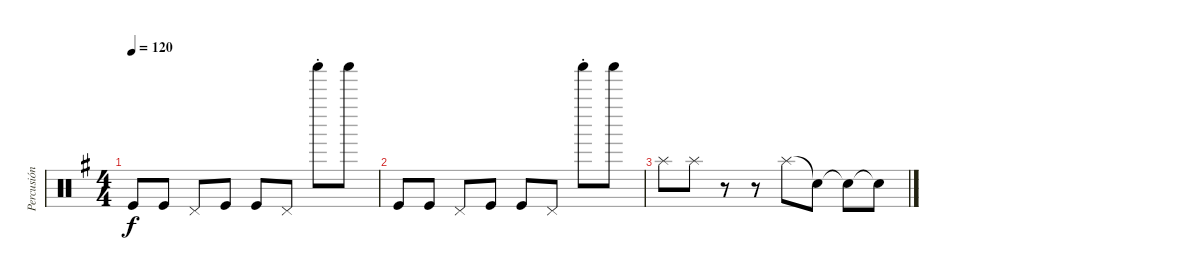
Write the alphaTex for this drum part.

\track ("Percusión" "Percusión") {instrument percussion}
\staff {score}
\articulation defaults
\ts (4 4)
\tempo 120
\clef neutral
\ks g "Kick (hit)".8{dy f} "Kick (hit)".8 "Pedal Hi-Hat (hit)".8 "Kick (hit)".8 "Kick (hit)".8 "Pedal Hi-Hat (hit)".8 "Shaker (hit)"{st}.8 "Shaker (hit)".8
|
"Kick (hit)".8 "Kick (hit)".8 "Pedal Hi-Hat (hit)".8 "Kick (hit)".8 "Kick (hit)".8 "Pedal Hi-Hat (hit)".8 "Shaker (hit)"{st}.8 "Shaker (hit)".8 |
"Splash (hit)".8 "Splash (hit)".8 r.8 r.8 "Splash (hit)".8 "Snare (hit)"{t}.8 "Snare (hit)"{t}.8 "Snare (hit)"{t}.8
